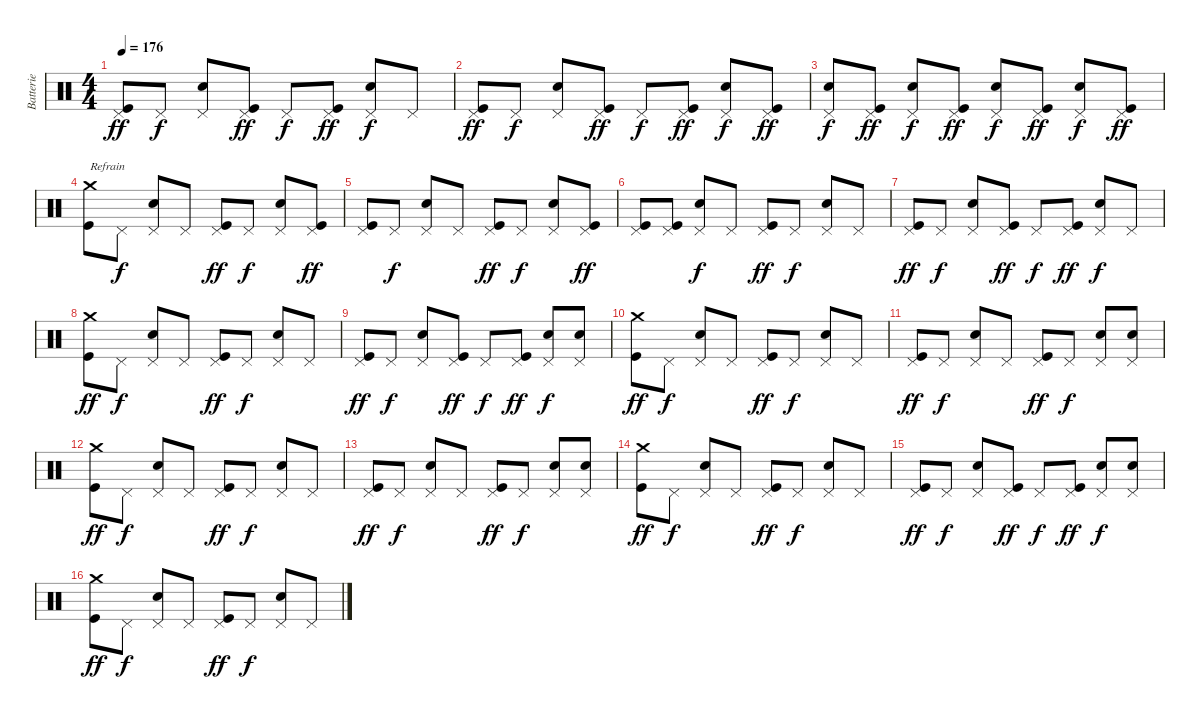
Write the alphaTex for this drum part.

\track ("Batterie" "Batterie") {instrument percussion}
\staff {score}
\articulation defaults
\ts (4 4)
\tempo 176
\clef neutral
\ks c
("Pedal Hi-Hat (hit)" "Kick (hit)").8{dy ff} "Pedal Hi-Hat (hit)".8{dy f} ("Pedal Hi-Hat (hit)" "Snare (hit) 2").8 ("Pedal Hi-Hat (hit)" "Kick (hit)").8{dy ff} "Pedal Hi-Hat (hit)".8{dy f} ("Pedal Hi-Hat (hit)" "Kick (hit)").8{dy ff} ("Pedal Hi-Hat (hit)" "Snare (hit) 2").8{dy f} "Pedal Hi-Hat (hit)".8 |
("Pedal Hi-Hat (hit)" "Kick (hit)").8{dy ff} "Pedal Hi-Hat (hit)".8{dy f} ("Pedal Hi-Hat (hit)" "Snare (hit) 2").8 ("Pedal Hi-Hat (hit)" "Kick (hit)").8{dy ff} "Pedal Hi-Hat (hit)".8{dy f} ("Pedal Hi-Hat (hit)" "Kick (hit)").8{dy ff} ("Pedal Hi-Hat (hit)" "Snare (hit) 2").8{dy f} ("Pedal Hi-Hat (hit)" "Kick (hit)").8{dy ff} |
("Pedal Hi-Hat (hit)" "Snare (hit) 2").8{dy f} ("Pedal Hi-Hat (hit)" "Kick (hit)").8{dy ff} ("Pedal Hi-Hat (hit)" "Snare (hit) 2").8{dy f} ("Pedal Hi-Hat (hit)" "Kick (hit)").8{dy ff} ("Pedal Hi-Hat (hit)" "Snare (hit) 2").8{dy f} ("Pedal Hi-Hat (hit)" "Kick (hit)").8{dy ff} ("Pedal Hi-Hat (hit)" "Snare (hit) 2").8{dy f} ("Pedal Hi-Hat (hit)" "Kick (hit)").8{dy ff} |
("Crash medium (hit)" "Kick (hit)").8{txt "Refrain"} "Pedal Hi-Hat (hit)".8{dy f} ("Pedal Hi-Hat (hit)" "Snare (hit) 2").8 "Pedal Hi-Hat (hit)".8 ("Pedal Hi-Hat (hit)" "Kick (hit)").8{dy ff} "Pedal Hi-Hat (hit)".8{dy f} ("Pedal Hi-Hat (hit)" "Snare (hit) 2").8 ("Pedal Hi-Hat (hit)" "Kick (hit)").8{dy ff} |
("Pedal Hi-Hat (hit)" "Kick (hit)").8 "Pedal Hi-Hat (hit)".8{dy f} ("Pedal Hi-Hat (hit)" "Snare (hit) 2").8 "Pedal Hi-Hat (hit)".8 ("Pedal Hi-Hat (hit)" "Kick (hit)").8{dy ff} "Pedal Hi-Hat (hit)".8{dy f} ("Pedal Hi-Hat (hit)" "Snare (hit) 2").8 ("Pedal Hi-Hat (hit)" "Kick (hit)").8{dy ff} |
("Pedal Hi-Hat (hit)" "Kick (hit)").8 ("Pedal Hi-Hat (hit)" "Kick (hit)").8 ("Pedal Hi-Hat (hit)" "Snare (hit) 2").8{dy f} "Pedal Hi-Hat (hit)".8 ("Pedal Hi-Hat (hit)" "Kick (hit)").8{dy ff} "Pedal Hi-Hat (hit)".8{dy f} ("Pedal Hi-Hat (hit)" "Snare (hit) 2").8 "Pedal Hi-Hat (hit)".8 |
("Pedal Hi-Hat (hit)" "Kick (hit)").8{dy ff} "Pedal Hi-Hat (hit)".8{dy f} ("Pedal Hi-Hat (hit)" "Snare (hit) 2").8 ("Pedal Hi-Hat (hit)" "Kick (hit)").8{dy ff} "Pedal Hi-Hat (hit)".8{dy f} ("Pedal Hi-Hat (hit)" "Kick (hit)").8{dy ff} ("Pedal Hi-Hat (hit)" "Snare (hit) 2").8{dy f} "Pedal Hi-Hat (hit)".8 |
("Crash medium (hit)" "Kick (hit)").8{dy ff} "Pedal Hi-Hat (hit)".8{dy f} ("Pedal Hi-Hat (hit)" "Snare (hit) 2").8 "Pedal Hi-Hat (hit)".8 ("Pedal Hi-Hat (hit)" "Kick (hit)").8{dy ff} "Pedal Hi-Hat (hit)".8{dy f} ("Pedal Hi-Hat (hit)" "Snare (hit) 2").8 "Pedal Hi-Hat (hit)".8 |
("Pedal Hi-Hat (hit)" "Kick (hit)").8{dy ff} "Pedal Hi-Hat (hit)".8{dy f} ("Pedal Hi-Hat (hit)" "Snare (hit) 2").8 ("Pedal Hi-Hat (hit)" "Kick (hit)").8{dy ff} "Pedal Hi-Hat (hit)".8{dy f} ("Pedal Hi-Hat (hit)" "Kick (hit)").8{dy ff} ("Pedal Hi-Hat (hit)" "Snare (hit) 2").8{dy f} ("Pedal Hi-Hat (hit)" "Snare (hit) 2").8 |
("Crash medium (hit)" "Kick (hit)").8{dy ff} "Pedal Hi-Hat (hit)".8{dy f} ("Pedal Hi-Hat (hit)" "Snare (hit) 2").8 "Pedal Hi-Hat (hit)".8 ("Pedal Hi-Hat (hit)" "Kick (hit)").8{dy ff} "Pedal Hi-Hat (hit)".8{dy f} ("Pedal Hi-Hat (hit)" "Snare (hit) 2").8 "Pedal Hi-Hat (hit)".8 |
("Pedal Hi-Hat (hit)" "Kick (hit)").8{dy ff} "Pedal Hi-Hat (hit)".8{dy f} ("Pedal Hi-Hat (hit)" "Snare (hit) 2").8 "Pedal Hi-Hat (hit)".8 ("Pedal Hi-Hat (hit)" "Kick (hit)").8{dy ff} "Pedal Hi-Hat (hit)".8{dy f} ("Pedal Hi-Hat (hit)" "Snare (hit) 2").8 ("Pedal Hi-Hat (hit)" "Snare (hit) 2").8 |
("Crash medium (hit)" "Kick (hit)").8{dy ff} "Pedal Hi-Hat (hit)".8{dy f} ("Pedal Hi-Hat (hit)" "Snare (hit) 2").8 "Pedal Hi-Hat (hit)".8 ("Pedal Hi-Hat (hit)" "Kick (hit)").8{dy ff} "Pedal Hi-Hat (hit)".8{dy f} ("Pedal Hi-Hat (hit)" "Snare (hit) 2").8 "Pedal Hi-Hat (hit)".8 |
("Pedal Hi-Hat (hit)" "Kick (hit)").8{dy ff} "Pedal Hi-Hat (hit)".8{dy f} ("Pedal Hi-Hat (hit)" "Snare (hit) 2").8 "Pedal Hi-Hat (hit)".8 ("Pedal Hi-Hat (hit)" "Kick (hit)").8{dy ff} "Pedal Hi-Hat (hit)".8{dy f} ("Pedal Hi-Hat (hit)" "Snare (hit) 2").8 ("Pedal Hi-Hat (hit)" "Snare (hit) 2").8 |
("Crash medium (hit)" "Kick (hit)").8{dy ff} "Pedal Hi-Hat (hit)".8{dy f} ("Pedal Hi-Hat (hit)" "Snare (hit) 2").8 "Pedal Hi-Hat (hit)".8 ("Pedal Hi-Hat (hit)" "Kick (hit)").8{dy ff} "Pedal Hi-Hat (hit)".8{dy f} ("Pedal Hi-Hat (hit)" "Snare (hit) 2").8 "Pedal Hi-Hat (hit)".8 |
("Pedal Hi-Hat (hit)" "Kick (hit)").8{dy ff} "Pedal Hi-Hat (hit)".8{dy f} ("Pedal Hi-Hat (hit)" "Snare (hit) 2").8 ("Pedal Hi-Hat (hit)" "Kick (hit)").8{dy ff} "Pedal Hi-Hat (hit)".8{dy f} ("Pedal Hi-Hat (hit)" "Kick (hit)").8{dy ff} ("Pedal Hi-Hat (hit)" "Snare (hit) 2").8{dy f} ("Pedal Hi-Hat (hit)" "Snare (hit) 2").8 |
("Crash medium (hit)" "Kick (hit)").8{dy ff} "Pedal Hi-Hat (hit)".8{dy f} ("Pedal Hi-Hat (hit)" "Snare (hit) 2").8 "Pedal Hi-Hat (hit)".8 ("Pedal Hi-Hat (hit)" "Kick (hit)").8{dy ff} "Pedal Hi-Hat (hit)".8{dy f} ("Pedal Hi-Hat (hit)" "Snare (hit) 2").8 "Pedal Hi-Hat (hit)".8
